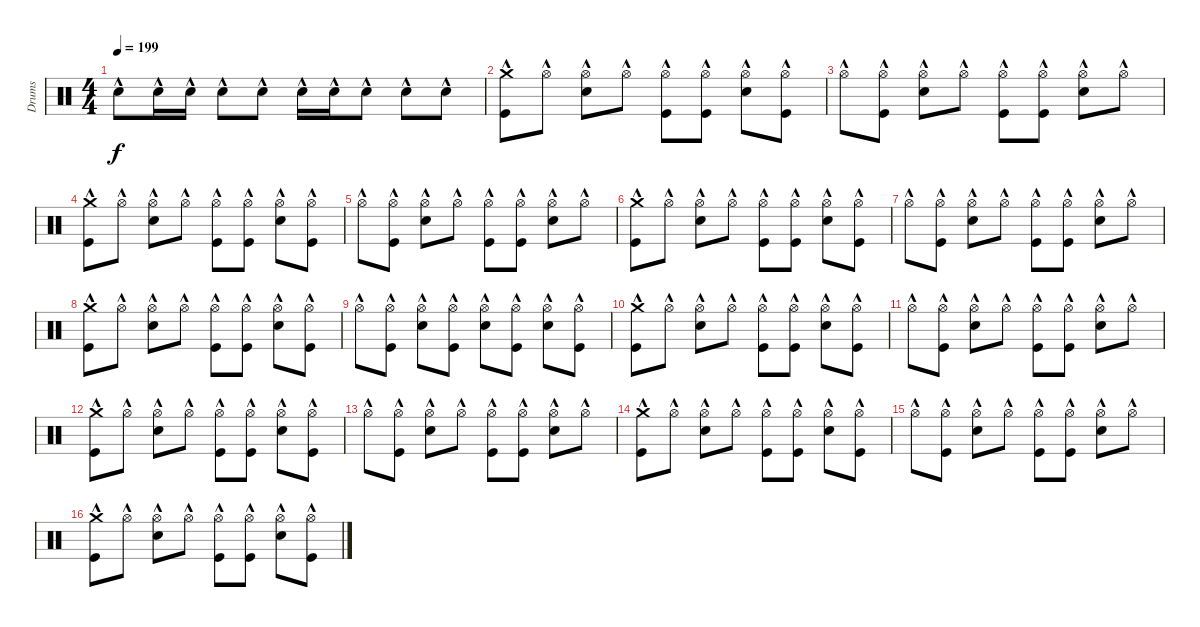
\track ("Drumkit" "Drums") {instrument percussion}
\staff {score}
\articulation defaults
\ts (4 4)
\tempo 199
\clef neutral
\ks c "Snare (hit) 2"{hac}.8{dy f} "Snare (hit) 2"{hac}.16 "Snare (hit) 2"{hac}.16 "Snare (hit) 2"{hac}.8 "Snare (hit) 2"{hac}.8 "Snare (hit) 2"{hac}.16 "Snare (hit) 2"{hac}.16 "Snare (hit) 2"{hac}.8 "Snare (hit) 2"{hac}.8 "Snare (hit) 2"{hac}.8
|
("Kick (hit)"{hac} "Crash medium (hit)"{hac}).8 "Hi-Hat (open)"{hac}.8 ("Hi-Hat (open)"{hac} "Snare (hit) 2"{hac}).8 "Hi-Hat (open)"{hac}.8 ("Hi-Hat (open)"{hac} "Kick (hit)"{hac}).8 ("Hi-Hat (open)"{hac} "Kick (hit)"{hac}).8 ("Hi-Hat (open)"{hac} "Snare (hit) 2"{hac}).8 ("Hi-Hat (open)"{hac} "Kick (hit)"{hac}).8 |
"Hi-Hat (open)"{hac}.8 ("Kick (hit)"{hac} "Hi-Hat (open)"{hac}).8 ("Hi-Hat (open)"{hac} "Snare (hit) 2"{hac}).8 "Hi-Hat (open)"{hac}.8 ("Hi-Hat (open)"{hac} "Kick (hit)"{hac}).8 ("Kick (hit)"{hac} "Hi-Hat (open)"{hac}).8 ("Hi-Hat (open)"{hac} "Snare (hit) 2"{hac}).8 "Hi-Hat (open)"{hac}.8 |
("Kick (hit)"{hac} "Crash medium (hit)"{hac}).8 "Hi-Hat (open)"{hac}.8 ("Hi-Hat (open)"{hac} "Snare (hit) 2"{hac}).8 "Hi-Hat (open)"{hac}.8 ("Hi-Hat (open)"{hac} "Kick (hit)"{hac}).8 ("Hi-Hat (open)"{hac} "Kick (hit)"{hac}).8 ("Hi-Hat (open)"{hac} "Snare (hit) 2"{hac}).8 ("Hi-Hat (open)"{hac} "Kick (hit)"{hac}).8 |
"Hi-Hat (open)"{hac}.8 ("Kick (hit)"{hac} "Hi-Hat (open)"{hac}).8 ("Hi-Hat (open)"{hac} "Snare (hit) 2"{hac}).8 "Hi-Hat (open)"{hac}.8 ("Hi-Hat (open)"{hac} "Kick (hit)"{hac}).8 ("Kick (hit)"{hac} "Hi-Hat (open)"{hac}).8 ("Hi-Hat (open)"{hac} "Snare (hit) 2"{hac}).8 "Hi-Hat (open)"{hac}.8 |
("Kick (hit)"{hac} "Crash medium (hit)"{hac}).8 "Hi-Hat (open)"{hac}.8 ("Hi-Hat (open)"{hac} "Snare (hit) 2"{hac}).8 "Hi-Hat (open)"{hac}.8 ("Hi-Hat (open)"{hac} "Kick (hit)"{hac}).8 ("Hi-Hat (open)"{hac} "Kick (hit)"{hac}).8 ("Hi-Hat (open)"{hac} "Snare (hit) 2"{hac}).8 ("Hi-Hat (open)"{hac} "Kick (hit)"{hac}).8 |
"Hi-Hat (open)"{hac}.8 ("Kick (hit)"{hac} "Hi-Hat (open)"{hac}).8 ("Hi-Hat (open)"{hac} "Snare (hit) 2"{hac}).8 "Hi-Hat (open)"{hac}.8 ("Hi-Hat (open)"{hac} "Kick (hit)"{hac}).8 ("Kick (hit)"{hac} "Hi-Hat (open)"{hac}).8 ("Hi-Hat (open)"{hac} "Snare (hit) 2"{hac}).8 "Hi-Hat (open)"{hac}.8 |
("Kick (hit)"{hac} "Crash medium (hit)"{hac}).8 "Hi-Hat (open)"{hac}.8 ("Hi-Hat (open)"{hac} "Snare (hit) 2"{hac}).8 "Hi-Hat (open)"{hac}.8 ("Hi-Hat (open)"{hac} "Kick (hit)"{hac}).8 ("Hi-Hat (open)"{hac} "Kick (hit)"{hac}).8 ("Hi-Hat (open)"{hac} "Snare (hit) 2"{hac}).8 ("Hi-Hat (open)"{hac} "Kick (hit)"{hac}).8 |
"Hi-Hat (open)"{hac}.8 ("Hi-Hat (open)"{hac} "Kick (hit)"{hac}).8 ("Hi-Hat (open)"{hac} "Snare (hit) 2"{hac}).8 ("Hi-Hat (open)"{hac} "Kick (hit)"{hac}).8 ("Hi-Hat (open)"{hac} "Snare (hit) 2"{hac}).8 ("Hi-Hat (open)"{hac} "Kick (hit)"{hac}).8 ("Hi-Hat (open)"{hac} "Snare (hit) 2"{hac}).8 ("Hi-Hat (open)"{hac} "Kick (hit)"{hac}).8 |
("Kick (hit)"{hac} "Crash medium (hit)"{hac}).8 "Hi-Hat (open)"{hac}.8 ("Hi-Hat (open)"{hac} "Snare (hit) 2"{hac}).8 "Hi-Hat (open)"{hac}.8 ("Hi-Hat (open)"{hac} "Kick (hit)"{hac}).8 ("Hi-Hat (open)"{hac} "Kick (hit)"{hac}).8 ("Hi-Hat (open)"{hac} "Snare (hit) 2"{hac}).8 ("Hi-Hat (open)"{hac} "Kick (hit)"{hac}).8 |
"Hi-Hat (open)"{hac}.8 ("Kick (hit)"{hac} "Hi-Hat (open)"{hac}).8 ("Hi-Hat (open)"{hac} "Snare (hit) 2"{hac}).8 "Hi-Hat (open)"{hac}.8 ("Hi-Hat (open)"{hac} "Kick (hit)"{hac}).8 ("Kick (hit)"{hac} "Hi-Hat (open)"{hac}).8 ("Hi-Hat (open)"{hac} "Snare (hit) 2"{hac}).8 "Hi-Hat (open)"{hac}.8 |
("Kick (hit)"{hac} "Crash medium (hit)"{hac}).8 "Hi-Hat (open)"{hac}.8 ("Hi-Hat (open)"{hac} "Snare (hit) 2"{hac}).8 "Hi-Hat (open)"{hac}.8 ("Hi-Hat (open)"{hac} "Kick (hit)"{hac}).8 ("Hi-Hat (open)"{hac} "Kick (hit)"{hac}).8 ("Hi-Hat (open)"{hac} "Snare (hit) 2"{hac}).8 ("Hi-Hat (open)"{hac} "Kick (hit)"{hac}).8 |
"Hi-Hat (open)"{hac}.8 ("Kick (hit)"{hac} "Hi-Hat (open)"{hac}).8 ("Hi-Hat (open)"{hac} "Snare (hit) 2"{hac}).8 "Hi-Hat (open)"{hac}.8 ("Hi-Hat (open)"{hac} "Kick (hit)"{hac}).8 ("Kick (hit)"{hac} "Hi-Hat (open)"{hac}).8 ("Hi-Hat (open)"{hac} "Snare (hit) 2"{hac}).8 "Hi-Hat (open)"{hac}.8 |
("Kick (hit)"{hac} "Crash medium (hit)"{hac}).8 "Hi-Hat (open)"{hac}.8 ("Hi-Hat (open)"{hac} "Snare (hit) 2"{hac}).8 "Hi-Hat (open)"{hac}.8 ("Hi-Hat (open)"{hac} "Kick (hit)"{hac}).8 ("Hi-Hat (open)"{hac} "Kick (hit)"{hac}).8 ("Hi-Hat (open)"{hac} "Snare (hit) 2"{hac}).8 ("Hi-Hat (open)"{hac} "Kick (hit)"{hac}).8 |
"Hi-Hat (open)"{hac}.8 ("Kick (hit)"{hac} "Hi-Hat (open)"{hac}).8 ("Hi-Hat (open)"{hac} "Snare (hit) 2"{hac}).8 "Hi-Hat (open)"{hac}.8 ("Hi-Hat (open)"{hac} "Kick (hit)"{hac}).8 ("Kick (hit)"{hac} "Hi-Hat (open)"{hac}).8 ("Hi-Hat (open)"{hac} "Snare (hit) 2"{hac}).8 "Hi-Hat (open)"{hac}.8 |
("Kick (hit)"{hac} "Crash medium (hit)"{hac}).8 "Hi-Hat (open)"{hac}.8 ("Hi-Hat (open)"{hac} "Snare (hit) 2"{hac}).8 "Hi-Hat (open)"{hac}.8 ("Hi-Hat (open)"{hac} "Kick (hit)"{hac}).8 ("Hi-Hat (open)"{hac} "Kick (hit)"{hac}).8 ("Hi-Hat (open)"{hac} "Snare (hit) 2"{hac}).8 ("Hi-Hat (open)"{hac} "Kick (hit)"{hac}).8
